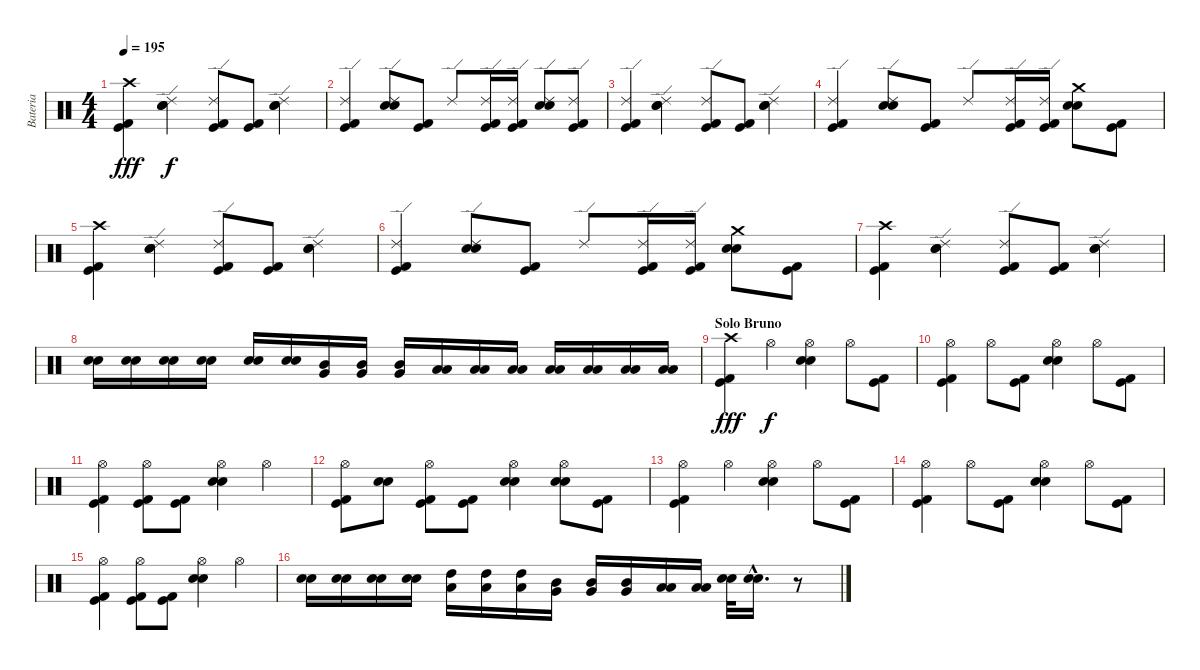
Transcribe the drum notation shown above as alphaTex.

\track ("Bateria" "Bateria") {instrument percussion}
\staff {score}
\articulation defaults
\ts (4 4)
\tempo 195
\clef neutral
\ks c
("Crash high (hit)" "Kick (hit) 2" "Kick (hit)").4{dy fff} ("Ride (edge) 2" "Electric Snare (hit)" "Snare (hit) 2").4{dy f} ("Ride (edge) 2" "Kick (hit) 2" "Kick (hit)").8 ("Kick (hit) 2" "Kick (hit)").8 ("Ride (edge) 2" "Electric Snare (hit)" "Snare (hit) 2").4 |
("Ride (edge) 2" "Kick (hit) 2" "Kick (hit)").4 ("Ride (edge) 2" "Electric Snare (hit)" "Snare (hit) 2").8 ("Kick (hit) 2" "Kick (hit)").8 "Ride (edge) 2".8 ("Ride (edge) 2" "Kick (hit) 2" "Kick (hit)").16 ("Ride (edge) 2" "Kick (hit) 2" "Kick (hit)").16 ("Ride (edge) 2" "Electric Snare (hit)" "Snare (hit) 2").8 ("Ride (edge) 2" "Kick (hit) 2" "Kick (hit)").8 |
("Ride (edge) 2" "Kick (hit) 2" "Kick (hit)").4 ("Ride (edge) 2" "Electric Snare (hit)" "Snare (hit) 2").4 ("Ride (edge) 2" "Kick (hit) 2" "Kick (hit)").8 ("Kick (hit) 2" "Kick (hit)").8 ("Ride (edge) 2" "Electric Snare (hit)" "Snare (hit) 2").4 |
("Ride (edge) 2" "Kick (hit) 2" "Kick (hit)").4 ("Ride (edge) 2" "Electric Snare (hit)" "Snare (hit) 2").8 ("Kick (hit) 2" "Kick (hit)").8 "Ride (edge) 2".8 ("Ride (edge) 2" "Kick (hit) 2" "Kick (hit)").16 ("Ride (edge) 2" "Kick (hit) 2" "Kick (hit)").16 ("Crash medium (hit)" "Electric Snare (hit)" "Snare (hit) 2").8 ("Kick (hit) 2" "Kick (hit)").8 |
("Crash high (hit)" "Kick (hit) 2" "Kick (hit)").4 ("Ride (edge) 2" "Electric Snare (hit)" "Snare (hit) 2").4 ("Ride (edge) 2" "Kick (hit) 2" "Kick (hit)").8 ("Kick (hit) 2" "Kick (hit)").8 ("Ride (edge) 2" "Electric Snare (hit)" "Snare (hit) 2").4 |
("Ride (edge) 2" "Kick (hit) 2" "Kick (hit)").4 ("Ride (edge) 2" "Electric Snare (hit)" "Snare (hit) 2").8 ("Kick (hit) 2" "Kick (hit)").8 "Ride (edge) 2".8 ("Ride (edge) 2" "Kick (hit) 2" "Kick (hit)").16 ("Ride (edge) 2" "Kick (hit) 2" "Kick (hit)").16 ("Crash medium (hit)" "Electric Snare (hit)" "Snare (hit) 2").8 ("Kick (hit) 2" "Kick (hit)").8 |
("Crash high (hit)" "Kick (hit) 2" "Kick (hit)").4 ("Ride (edge) 2" "Electric Snare (hit)" "Snare (hit) 2").4 ("Ride (edge) 2" "Kick (hit) 2" "Kick (hit)").8 ("Kick (hit) 2" "Kick (hit)").8 ("Ride (edge) 2" "Electric Snare (hit)" "Snare (hit) 2").4 |
("Electric Snare (hit)" "Snare (hit) 2").16 ("Electric Snare (hit)" "Snare (hit) 2").16 ("Electric Snare (hit)" "Snare (hit) 2").16 ("Electric Snare (hit)" "Snare (hit) 2").16 ("Electric Snare (hit)" "Snare (hit) 2").16 ("Electric Snare (hit)" "Snare (hit) 2").16 ("Mid Tom (hit)" "Very Low Tom (hit)").16 ("Mid Tom (hit)" "Very Low Tom (hit)").16 ("Mid Tom (hit)" "Very Low Tom (hit)").16 ("Low Tom (hit)" "Low Floor Tom (hit)").16 ("Low Tom (hit)" "Low Floor Tom (hit)").16 ("Low Tom (hit)" "Low Floor Tom (hit)").16 ("Low Tom (hit)" "Low Floor Tom (hit)").16 ("Low Tom (hit)" "Low Floor Tom (hit)").16 ("Low Tom (hit)" "Low Floor Tom (hit)").16 ("Low Tom (hit)" "Low Floor Tom (hit)").16 |
\section ("" "Solo Bruno")
("Crash high (hit)" "Kick (hit) 2" "Kick (hit)").4{dy fff} "Hi-Hat (open)".4{dy f} ("Hi-Hat (open)" "Electric Snare (hit)" "Snare (hit) 2").4 "Hi-Hat (open)".8 ("Kick (hit) 2" "Kick (hit)").8 |
("Hi-Hat (open)" "Kick (hit) 2" "Kick (hit)").4 "Hi-Hat (open)".8 ("Kick (hit) 2" "Kick (hit)").8 ("Hi-Hat (open)" "Electric Snare (hit)" "Snare (hit) 2").4 "Hi-Hat (open)".8 ("Kick (hit) 2" "Kick (hit)").8 |
("Hi-Hat (open)" "Kick (hit) 2" "Kick (hit)").4 ("Hi-Hat (open)" "Kick (hit) 2" "Kick (hit)").8 ("Kick (hit) 2" "Kick (hit)").8 ("Hi-Hat (open)" "Electric Snare (hit)" "Snare (hit) 2").4 "Hi-Hat (open)".4 |
("Hi-Hat (open)" "Kick (hit) 2" "Kick (hit)").8 ("Electric Snare (hit)" "Snare (hit) 2").8 ("Hi-Hat (open)" "Kick (hit) 2" "Kick (hit)").8 ("Kick (hit) 2" "Kick (hit)").8 ("Hi-Hat (open)" "Electric Snare (hit)" "Snare (hit) 2").4 ("Hi-Hat (open)" "Electric Snare (hit)" "Snare (hit) 2").8 ("Kick (hit) 2" "Kick (hit)").8 |
("Hi-Hat (open)" "Kick (hit) 2" "Kick (hit)").4 "Hi-Hat (open)".4 ("Hi-Hat (open)" "Electric Snare (hit)" "Snare (hit) 2").4 "Hi-Hat (open)".8 ("Kick (hit) 2" "Kick (hit)").8 |
("Hi-Hat (open)" "Kick (hit) 2" "Kick (hit)").4 "Hi-Hat (open)".8 ("Kick (hit) 2" "Kick (hit)").8 ("Hi-Hat (open)" "Electric Snare (hit)" "Snare (hit) 2").4 "Hi-Hat (open)".8 ("Kick (hit) 2" "Kick (hit)").8 |
("Hi-Hat (open)" "Kick (hit) 2" "Kick (hit)").4 ("Hi-Hat (open)" "Kick (hit) 2" "Kick (hit)").8 ("Kick (hit) 2" "Kick (hit)").8 ("Hi-Hat (open)" "Electric Snare (hit)" "Snare (hit) 2").4 "Hi-Hat (open)".4 |
("Electric Snare (hit)" "Snare (hit) 2").16 ("Electric Snare (hit)" "Snare (hit) 2").16 ("Electric Snare (hit)" "Snare (hit) 2").16 ("Electric Snare (hit)" "Snare (hit) 2").16 ("High Tom (hit)" "Low Tom (hit)").16 ("High Tom (hit)" "Low Tom (hit)").16 ("High Tom (hit)" "Low Tom (hit)").16 ("Mid Tom (hit)" "Very Low Tom (hit)").16 ("Mid Tom (hit)" "Very Low Tom (hit)").16 ("Mid Tom (hit)" "Very Low Tom (hit)").16 ("Low Tom (hit)" "Low Floor Tom (hit)").16 ("Low Tom (hit)" "Low Floor Tom (hit)").16 ("Electric Snare (hit)" "Snare (hit) 2").32 ("Electric Snare (hit)"{hac} "Snare (hit) 2"{hac}).16{d} r.8
